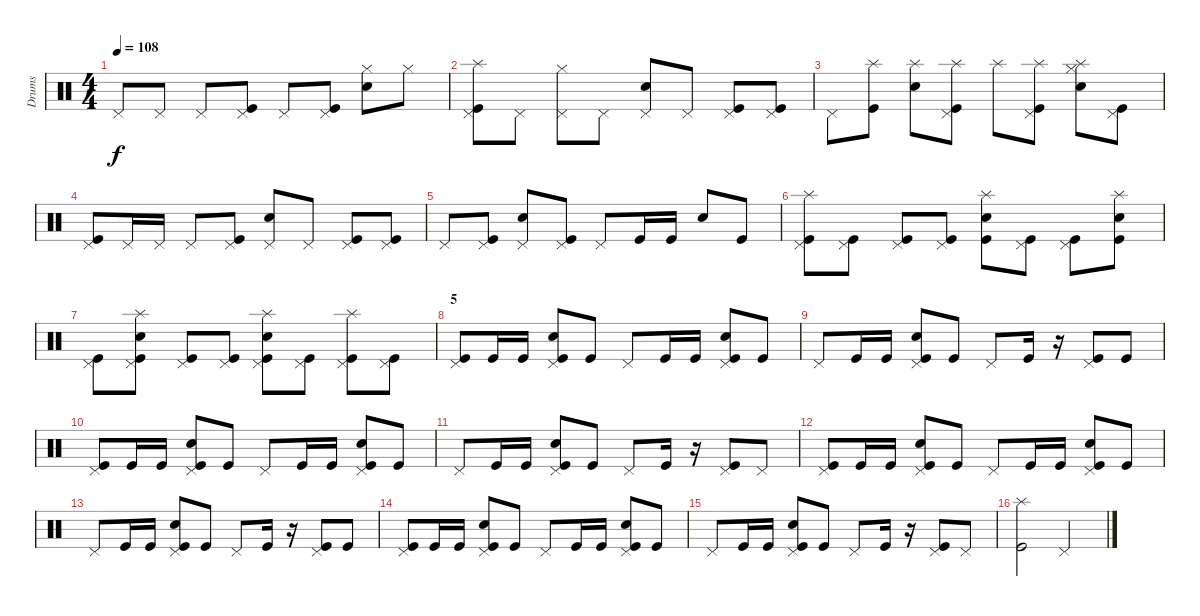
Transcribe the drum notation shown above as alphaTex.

\track ("Drums" "Drums") {instrument percussion}
\staff {score}
\articulation defaults
\ts (4 4)
\tempo 108
\clef neutral
\ks c "Pedal Hi-Hat (hit)".8{dy f} "Pedal Hi-Hat (hit)".8 "Pedal Hi-Hat (hit)".8
("Kick (hit)" "Pedal Hi-Hat (hit)").8 "Pedal Hi-Hat (hit)".8 ("Kick (hit)" "Pedal Hi-Hat (hit)").8 ("Electric Snare (hit)" "Hi-Hat (closed)").8 "Hi-Hat (closed)".8 |
("Kick (hit)" "Splash (hit)" "Pedal Hi-Hat (hit)").8 "Pedal Hi-Hat (hit)".8 ("Hi-Hat (closed)" "Pedal Hi-Hat (hit)").8 "Pedal Hi-Hat (hit)".8 ("Electric Snare (hit)" "Pedal Hi-Hat (hit)").8 "Pedal Hi-Hat (hit)".8 ("Kick (hit)" "Pedal Hi-Hat (hit)").8 ("Kick (hit)" "Pedal Hi-Hat (hit)").8 |
"Pedal Hi-Hat (hit)".8 ("Kick (hit)" "Splash (hit)").8 ("Electric Snare (hit)" "Splash (hit)").8 ("Kick (hit)" "Pedal Hi-Hat (hit)" "Splash (hit)").8 "Splash (hit)".8 ("Kick (hit)" "Pedal Hi-Hat (hit)" "Splash (hit)").8 ("Electric Snare (hit)" "Hi-Hat (closed)" "Splash (hit)").8 ("Kick (hit)" "Pedal Hi-Hat (hit)").8 |
("Pedal Hi-Hat (hit)" "Kick (hit)").8 "Pedal Hi-Hat (hit)".16 "Pedal Hi-Hat (hit)".16 "Pedal Hi-Hat (hit)".8 ("Pedal Hi-Hat (hit)" "Kick (hit)").8 ("Pedal Hi-Hat (hit)" "Electric Snare (hit)").8 "Pedal Hi-Hat (hit)".8 ("Pedal Hi-Hat (hit)" "Kick (hit)").8 ("Pedal Hi-Hat (hit)" "Kick (hit)").8 |
"Pedal Hi-Hat (hit)".8 ("Pedal Hi-Hat (hit)" "Kick (hit)").8 ("Pedal Hi-Hat (hit)" "Electric Snare (hit)").8 ("Pedal Hi-Hat (hit)" "Kick (hit)").8 "Pedal Hi-Hat (hit)".8 "Kick (hit)".16 "Kick (hit)".16 "Electric Snare (hit)".8 "Kick (hit)".8 |
("Pedal Hi-Hat (hit)" "Kick (hit)" "Splash (hit)").8 ("Pedal Hi-Hat (hit)" "Kick (hit)").8 ("Pedal Hi-Hat (hit)" "Kick (hit)").8 ("Pedal Hi-Hat (hit)" "Kick (hit)").8 ("Kick (hit)" "Electric Snare (hit)" "Splash (hit)").8 ("Pedal Hi-Hat (hit)" "Kick (hit)").8 ("Pedal Hi-Hat (hit)" "Kick (hit)").8 ("Kick (hit)" "Electric Snare (hit)" "Splash (hit)").8 |
("Pedal Hi-Hat (hit)" "Kick (hit)").8 ("Pedal Hi-Hat (hit)" "Kick (hit)" "Electric Snare (hit)" "Splash (hit)").8 ("Pedal Hi-Hat (hit)" "Kick (hit)").8 ("Pedal Hi-Hat (hit)" "Kick (hit)").8 ("Pedal Hi-Hat (hit)" "Kick (hit)" "Electric Snare (hit)" "Splash (hit)").8 ("Pedal Hi-Hat (hit)" "Kick (hit)").8 ("Pedal Hi-Hat (hit)" "Kick (hit)" "Splash (hit)").8 ("Pedal Hi-Hat (hit)" "Kick (hit)").8 |
\section ("" "5")
("Kick (hit)" "Pedal Hi-Hat (hit)").8 "Kick (hit)".16 "Kick (hit)".16 ("Kick (hit)" "Electric Snare (hit)" "Pedal Hi-Hat (hit)").8 "Kick (hit)".8 "Pedal Hi-Hat (hit)".8 "Kick (hit)".16 "Kick (hit)".16 ("Kick (hit)" "Electric Snare (hit)" "Pedal Hi-Hat (hit)").8 "Kick (hit)".8 |
"Pedal Hi-Hat (hit)".8 "Kick (hit)".16 "Kick (hit)".16 ("Kick (hit)" "Electric Snare (hit)" "Pedal Hi-Hat (hit)").8 "Kick (hit)".8 "Pedal Hi-Hat (hit)".8 "Kick (hit)".16 r.16 ("Kick (hit)" "Pedal Hi-Hat (hit)").8 "Kick (hit)".8 |
("Kick (hit)" "Pedal Hi-Hat (hit)").8 "Kick (hit)".16 "Kick (hit)".16 ("Kick (hit)" "Electric Snare (hit)" "Pedal Hi-Hat (hit)").8 "Kick (hit)".8 "Pedal Hi-Hat (hit)".8 "Kick (hit)".16 "Kick (hit)".16 ("Kick (hit)" "Electric Snare (hit)" "Pedal Hi-Hat (hit)").8 "Kick (hit)".8 |
"Pedal Hi-Hat (hit)".8 "Kick (hit)".16 "Kick (hit)".16 ("Kick (hit)" "Electric Snare (hit)" "Pedal Hi-Hat (hit)").8 "Kick (hit)".8 "Pedal Hi-Hat (hit)".8 "Kick (hit)".16 r.16 ("Kick (hit)" "Pedal Hi-Hat (hit)").8 "Pedal Hi-Hat (hit)".8 |
("Kick (hit)" "Pedal Hi-Hat (hit)").8 "Kick (hit)".16 "Kick (hit)".16 ("Kick (hit)" "Electric Snare (hit)" "Pedal Hi-Hat (hit)").8 "Kick (hit)".8 "Pedal Hi-Hat (hit)".8 "Kick (hit)".16 "Kick (hit)".16 ("Kick (hit)" "Electric Snare (hit)" "Pedal Hi-Hat (hit)").8 "Kick (hit)".8 |
"Pedal Hi-Hat (hit)".8 "Kick (hit)".16 "Kick (hit)".16 ("Kick (hit)" "Electric Snare (hit)" "Pedal Hi-Hat (hit)").8 "Kick (hit)".8 "Pedal Hi-Hat (hit)".8 "Kick (hit)".16 r.16 ("Kick (hit)" "Pedal Hi-Hat (hit)").8 "Kick (hit)".8 |
("Kick (hit)" "Pedal Hi-Hat (hit)").8 "Kick (hit)".16 "Kick (hit)".16 ("Kick (hit)" "Electric Snare (hit)" "Pedal Hi-Hat (hit)").8 "Kick (hit)".8 "Pedal Hi-Hat (hit)".8 "Kick (hit)".16 "Kick (hit)".16 ("Kick (hit)" "Electric Snare (hit)" "Pedal Hi-Hat (hit)").8 "Kick (hit)".8 |
"Pedal Hi-Hat (hit)".8 "Kick (hit)".16 "Kick (hit)".16 ("Kick (hit)" "Electric Snare (hit)" "Pedal Hi-Hat (hit)").8 "Kick (hit)".8 "Pedal Hi-Hat (hit)".8 "Kick (hit)".16 r.16 ("Kick (hit)" "Pedal Hi-Hat (hit)").8 "Pedal Hi-Hat (hit)".8 |
("Kick (hit)" "Splash (hit)").2 "Pedal Hi-Hat (hit)".2
